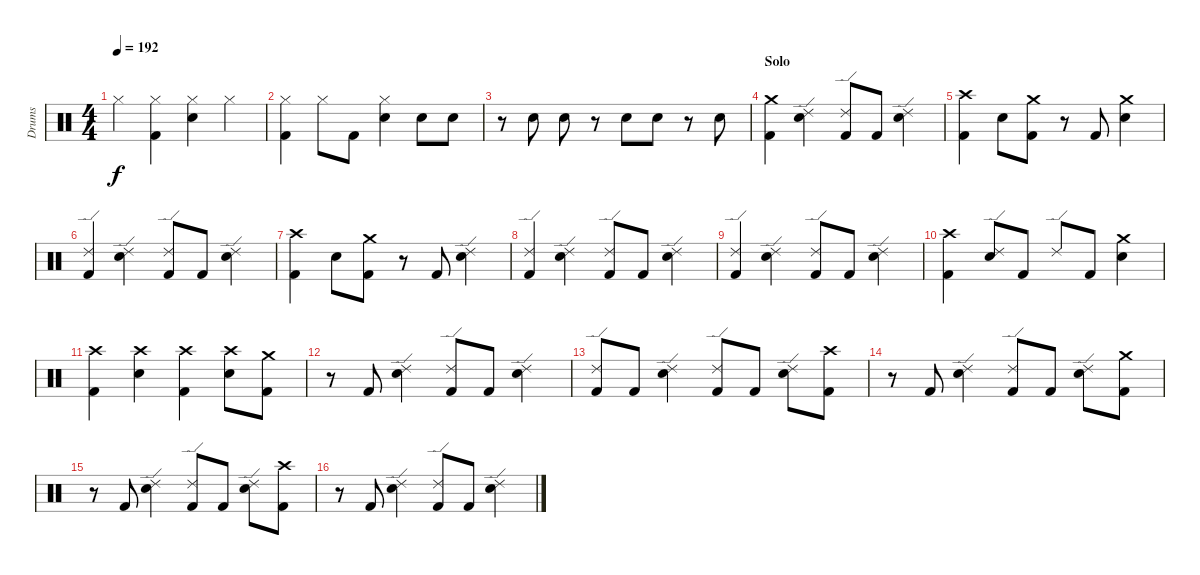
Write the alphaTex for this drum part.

\track ("Drums" "Drums") {instrument percussion}
\staff {score}
\articulation defaults
\ts (4 4)
\tempo 192
\clef neutral
\ks c "Hi-Hat (closed)".4{dy f}
("Kick (hit) 2" "Hi-Hat (closed)").4 ("Electric Snare (hit)" "Hi-Hat (closed)").4 "Hi-Hat (closed)".4 |
("Kick (hit) 2" "Hi-Hat (closed)").4 "Hi-Hat (closed)".8 "Kick (hit) 2".8 ("Electric Snare (hit)" "Hi-Hat (closed)").4 "Electric Snare (hit)".8 "Electric Snare (hit)".8 |
r.8 "Electric Snare (hit)".8 "Electric Snare (hit)".8 r.8 "Electric Snare (hit)".8 "Electric Snare (hit)".8 r.8 "Electric Snare (hit)".8 |
\section ("" "Solo")
("Kick (hit) 2" "Crash medium (hit)").4 ("Electric Snare (hit)" "Ride (edge) 2").4 ("Kick (hit) 2" "Ride (edge) 2").8 "Kick (hit) 2".8 ("Electric Snare (hit)" "Ride (edge) 2").4 |
("Kick (hit) 2" "Crash high (hit)").4 "Electric Snare (hit)".8 ("Kick (hit) 2" "Crash medium (hit)").8 r.8 "Kick (hit) 2".8 ("Electric Snare (hit)" "Crash medium (hit)").4 |
("Kick (hit) 2" "Ride (edge) 2").4 ("Electric Snare (hit)" "Ride (edge) 2").4 ("Kick (hit) 2" "Ride (edge) 2").8 "Kick (hit) 2".8 ("Electric Snare (hit)" "Ride (edge) 2").4 |
("Kick (hit) 2" "Crash high (hit)").4 "Electric Snare (hit)".8 ("Kick (hit) 2" "Crash medium (hit)").8 r.8 "Kick (hit) 2".8 ("Electric Snare (hit)" "Ride (edge) 2").4 |
("Kick (hit) 2" "Ride (edge) 2").4 ("Electric Snare (hit)" "Ride (edge) 2").4 ("Kick (hit) 2" "Ride (edge) 2").8 "Kick (hit) 2".8 ("Electric Snare (hit)" "Ride (edge) 2").4 |
("Kick (hit) 2" "Ride (edge) 2").4 ("Electric Snare (hit)" "Ride (edge) 2").4 ("Kick (hit) 2" "Ride (edge) 2").8 "Kick (hit) 2".8 ("Electric Snare (hit)" "Ride (edge) 2").4 |
("Kick (hit) 2" "Crash high (hit)").4 ("Electric Snare (hit)" "Ride (edge) 2").8 "Kick (hit) 2".8 "Ride (edge) 2".8 "Kick (hit) 2".8 ("Electric Snare (hit)" "Crash medium (hit)").4 |
("Kick (hit) 2" "Crash high (hit)").4 ("Electric Snare (hit)" "Crash high (hit)").4 ("Kick (hit) 2" "Crash high (hit)").4 ("Electric Snare (hit)" "Crash high (hit)").8 ("Kick (hit) 2" "Crash medium (hit)").8 |
\section ("" "")
r.8 "Kick (hit) 2".8 ("Electric Snare (hit)" "Ride (edge) 2").4 ("Kick (hit) 2" "Ride (edge) 2").8 "Kick (hit) 2".8 ("Electric Snare (hit)" "Ride (edge) 2").4 |
("Kick (hit) 2" "Ride (edge) 2").8 "Kick (hit) 2".8 ("Electric Snare (hit)" "Ride (edge) 2").4 ("Kick (hit) 2" "Ride (edge) 2").8 "Kick (hit) 2".8 ("Electric Snare (hit)" "Ride (edge) 2").8 ("Kick (hit) 2" "Crash high (hit)").8 |
r.8 "Kick (hit) 2".8 ("Electric Snare (hit)" "Ride (edge) 2").4 ("Kick (hit) 2" "Ride (edge) 2").8 "Kick (hit) 2".8 ("Electric Snare (hit)" "Ride (edge) 2").8 ("Kick (hit) 2" "Crash medium (hit)").8 |
r.8 "Kick (hit) 2".8 ("Electric Snare (hit)" "Ride (edge) 2").4 ("Kick (hit) 2" "Ride (edge) 2").8 "Kick (hit) 2".8 ("Electric Snare (hit)" "Ride (edge) 2").8 ("Kick (hit) 2" "Crash high (hit)").8 |
r.8 "Kick (hit) 2".8 ("Electric Snare (hit)" "Ride (edge) 2").4 ("Kick (hit) 2" "Ride (edge) 2").8 "Kick (hit) 2".8 ("Electric Snare (hit)" "Ride (edge) 2").4
